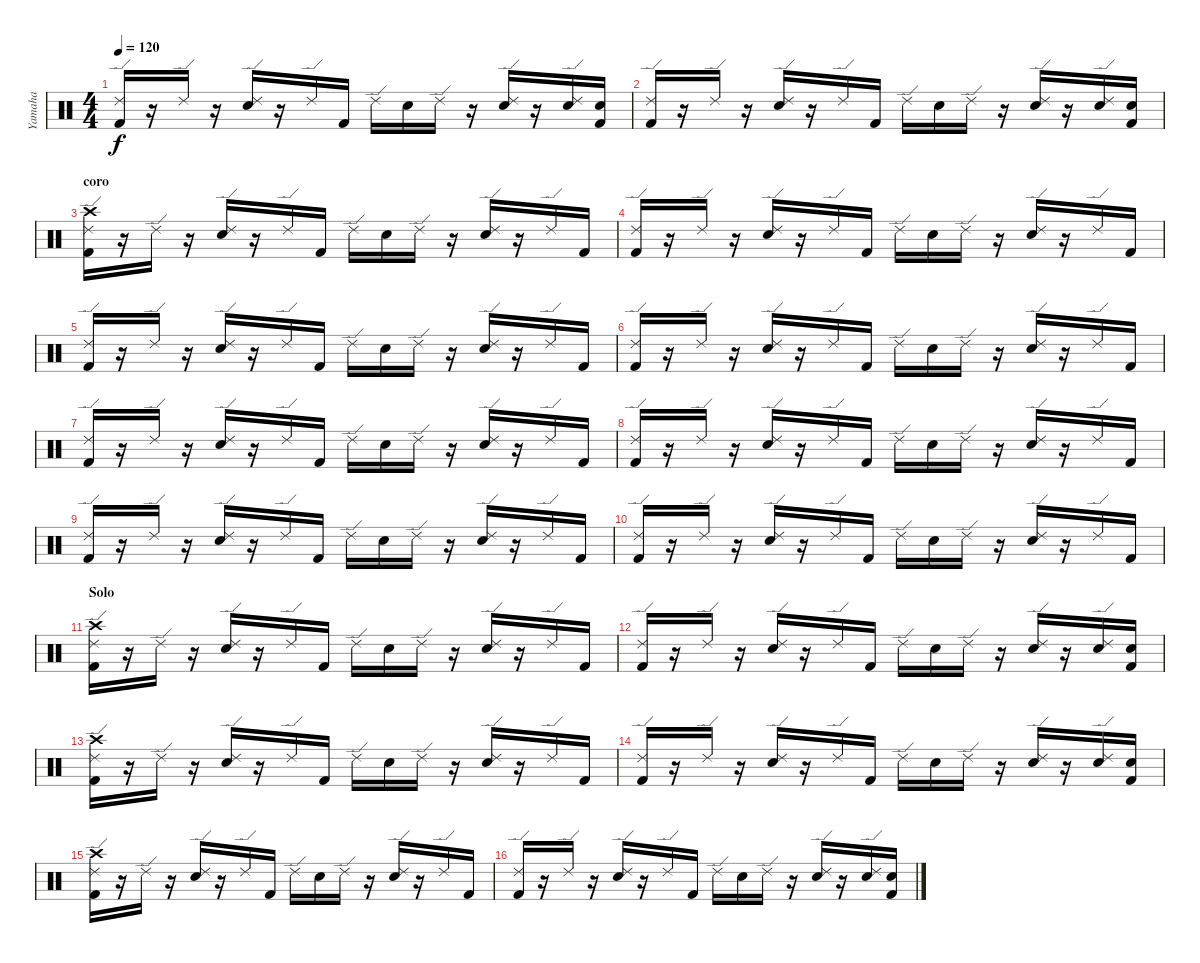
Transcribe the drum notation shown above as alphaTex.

\track ("Yamaha" "Yamaha") {instrument percussion}
\staff {score}
\articulation defaults
\ts (4 4)
\tempo 120
\clef neutral
\ks c
("Ride (edge) 2" "Kick (hit) 2").16{dy f} r.16 "Ride (edge) 2".16 r.16 ("Ride (edge) 2" "Snare (hit) 2").16 r.16 "Ride (edge) 2".16 "Kick (hit) 2".16 "Ride (edge) 2".16 "Snare (hit) 2".16 "Ride (edge) 2".16 r.16 ("Ride (edge) 2" "Snare (hit) 2").16 r.16 ("Ride (edge) 2" "Snare (hit) 2").16 ("Snare (hit) 2" "Kick (hit) 2").16 |
("Ride (edge) 2" "Kick (hit) 2").16 r.16 "Ride (edge) 2".16 r.16 ("Ride (edge) 2" "Snare (hit) 2").16 r.16 "Ride (edge) 2".16 "Kick (hit) 2".16 "Ride (edge) 2".16 "Snare (hit) 2".16 "Ride (edge) 2".16 r.16 ("Ride (edge) 2" "Snare (hit) 2").16 r.16 ("Ride (edge) 2" "Snare (hit) 2").16 ("Snare (hit) 2" "Kick (hit) 2").16 |
\section ("" "coro")
("Crash high (hit)" "Ride (edge) 2" "Kick (hit) 2").16 r.16 "Ride (edge) 2".16 r.16 ("Ride (edge) 2" "Snare (hit) 2").16 r.16 "Ride (edge) 2".16 "Kick (hit) 2".16 "Ride (edge) 2".16 "Snare (hit) 2".16 "Ride (edge) 2".16 r.16 ("Ride (edge) 2" "Snare (hit) 2").16 r.16 "Ride (edge) 2".16 "Kick (hit) 2".16 |
("Ride (edge) 2" "Kick (hit) 2").16 r.16 "Ride (edge) 2".16 r.16 ("Ride (edge) 2" "Snare (hit) 2").16 r.16 "Ride (edge) 2".16 "Kick (hit) 2".16 "Ride (edge) 2".16 "Snare (hit) 2".16 "Ride (edge) 2".16 r.16 ("Ride (edge) 2" "Snare (hit) 2").16 r.16 "Ride (edge) 2".16 "Kick (hit) 2".16 |
("Ride (edge) 2" "Kick (hit) 2").16 r.16 "Ride (edge) 2".16 r.16 ("Ride (edge) 2" "Snare (hit) 2").16 r.16 "Ride (edge) 2".16 "Kick (hit) 2".16 "Ride (edge) 2".16 "Snare (hit) 2".16 "Ride (edge) 2".16 r.16 ("Ride (edge) 2" "Snare (hit) 2").16 r.16 "Ride (edge) 2".16 "Kick (hit) 2".16 |
("Ride (edge) 2" "Kick (hit) 2").16 r.16 "Ride (edge) 2".16 r.16 ("Ride (edge) 2" "Snare (hit) 2").16 r.16 "Ride (edge) 2".16 "Kick (hit) 2".16 "Ride (edge) 2".16 "Snare (hit) 2".16 "Ride (edge) 2".16 r.16 ("Ride (edge) 2" "Snare (hit) 2").16 r.16 "Ride (edge) 2".16 "Kick (hit) 2".16 |
("Ride (edge) 2" "Kick (hit) 2").16 r.16 "Ride (edge) 2".16 r.16 ("Ride (edge) 2" "Snare (hit) 2").16 r.16 "Ride (edge) 2".16 "Kick (hit) 2".16 "Ride (edge) 2".16 "Snare (hit) 2".16 "Ride (edge) 2".16 r.16 ("Ride (edge) 2" "Snare (hit) 2").16 r.16 "Ride (edge) 2".16 "Kick (hit) 2".16 |
("Ride (edge) 2" "Kick (hit) 2").16 r.16 "Ride (edge) 2".16 r.16 ("Ride (edge) 2" "Snare (hit) 2").16 r.16 "Ride (edge) 2".16 "Kick (hit) 2".16 "Ride (edge) 2".16 "Snare (hit) 2".16 "Ride (edge) 2".16 r.16 ("Ride (edge) 2" "Snare (hit) 2").16 r.16 "Ride (edge) 2".16 "Kick (hit) 2".16 |
("Ride (edge) 2" "Kick (hit) 2").16 r.16 "Ride (edge) 2".16 r.16 ("Ride (edge) 2" "Snare (hit) 2").16 r.16 "Ride (edge) 2".16 "Kick (hit) 2".16 "Ride (edge) 2".16 "Snare (hit) 2".16 "Ride (edge) 2".16 r.16 ("Ride (edge) 2" "Snare (hit) 2").16 r.16 "Ride (edge) 2".16 "Kick (hit) 2".16 |
("Ride (edge) 2" "Kick (hit) 2").16 r.16 "Ride (edge) 2".16 r.16 ("Ride (edge) 2" "Snare (hit) 2").16 r.16 "Ride (edge) 2".16 "Kick (hit) 2".16 "Ride (edge) 2".16 "Snare (hit) 2".16 "Ride (edge) 2".16 r.16 ("Ride (edge) 2" "Snare (hit) 2").16 r.16 "Ride (edge) 2".16 "Kick (hit) 2".16 |
\section ("" "Solo")
("Crash high (hit)" "Ride (edge) 2" "Kick (hit) 2").16 r.16 "Ride (edge) 2".16 r.16 ("Ride (edge) 2" "Snare (hit) 2").16 r.16 "Ride (edge) 2".16 "Kick (hit) 2".16 "Ride (edge) 2".16 "Snare (hit) 2".16 "Ride (edge) 2".16 r.16 ("Ride (edge) 2" "Snare (hit) 2").16 r.16 "Ride (edge) 2".16 "Kick (hit) 2".16 |
("Ride (edge) 2" "Kick (hit) 2").16 r.16 "Ride (edge) 2".16 r.16 ("Ride (edge) 2" "Snare (hit) 2").16 r.16 "Ride (edge) 2".16 "Kick (hit) 2".16 "Ride (edge) 2".16 "Snare (hit) 2".16 "Ride (edge) 2".16 r.16 ("Ride (edge) 2" "Snare (hit) 2").16 r.16 ("Ride (edge) 2" "Snare (hit) 2").16 ("Snare (hit) 2" "Kick (hit) 2").16 |
("Crash high (hit)" "Ride (edge) 2" "Kick (hit) 2").16 r.16 "Ride (edge) 2".16 r.16 ("Ride (edge) 2" "Snare (hit) 2").16 r.16 "Ride (edge) 2".16 "Kick (hit) 2".16 "Ride (edge) 2".16 "Snare (hit) 2".16 "Ride (edge) 2".16 r.16 ("Ride (edge) 2" "Snare (hit) 2").16 r.16 "Ride (edge) 2".16 "Kick (hit) 2".16 |
("Ride (edge) 2" "Kick (hit) 2").16 r.16 "Ride (edge) 2".16 r.16 ("Ride (edge) 2" "Snare (hit) 2").16 r.16 "Ride (edge) 2".16 "Kick (hit) 2".16 "Ride (edge) 2".16 "Snare (hit) 2".16 "Ride (edge) 2".16 r.16 ("Ride (edge) 2" "Snare (hit) 2").16 r.16 ("Ride (edge) 2" "Snare (hit) 2").16 ("Snare (hit) 2" "Kick (hit) 2").16 |
("Crash high (hit)" "Ride (edge) 2" "Kick (hit) 2").16 r.16 "Ride (edge) 2".16 r.16 ("Ride (edge) 2" "Snare (hit) 2").16 r.16 "Ride (edge) 2".16 "Kick (hit) 2".16 "Ride (edge) 2".16 "Snare (hit) 2".16 "Ride (edge) 2".16 r.16 ("Ride (edge) 2" "Snare (hit) 2").16 r.16 "Ride (edge) 2".16 "Kick (hit) 2".16 |
("Ride (edge) 2" "Kick (hit) 2").16 r.16 "Ride (edge) 2".16 r.16 ("Ride (edge) 2" "Snare (hit) 2").16 r.16 "Ride (edge) 2".16 "Kick (hit) 2".16 "Ride (edge) 2".16 "Snare (hit) 2".16 "Ride (edge) 2".16 r.16 ("Ride (edge) 2" "Snare (hit) 2").16 r.16 ("Ride (edge) 2" "Snare (hit) 2").16 ("Snare (hit) 2" "Kick (hit) 2").16
